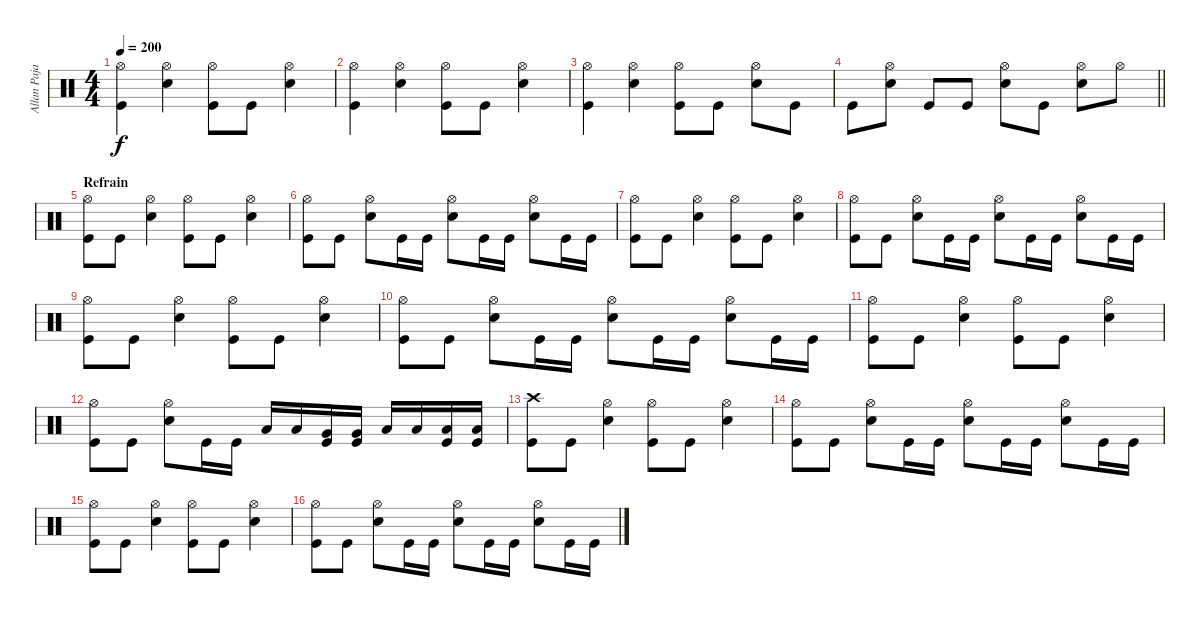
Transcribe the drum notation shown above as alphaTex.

\track ("Allan Pajarin (Drums)" "Allan Paja") {instrument percussion}
\staff {score}
\articulation defaults
\ts (4 4)
\tempo 200
\clef neutral
\ks c
("Hi-Hat (open)" "Kick (hit)").4{dy f} ("Hi-Hat (open)" "Electric Snare (hit)").4 ("Hi-Hat (open)" "Kick (hit)").8 "Kick (hit)".8 ("Hi-Hat (open)" "Electric Snare (hit)").4 |
("Hi-Hat (open)" "Kick (hit)").4 ("Hi-Hat (open)" "Electric Snare (hit)").4 ("Hi-Hat (open)" "Kick (hit)").8 "Kick (hit)".8 ("Hi-Hat (open)" "Electric Snare (hit)").4 |
("Hi-Hat (open)" "Kick (hit)").4 ("Hi-Hat (open)" "Electric Snare (hit)").4 ("Hi-Hat (open)" "Kick (hit)").8 "Kick (hit)".8 ("Hi-Hat (open)" "Electric Snare (hit)").8 "Kick (hit)".8 |
\barLineRight lightlight "Kick (hit)".8
("Hi-Hat (open)" "Electric Snare (hit)").8 "Kick (hit)".8 "Kick (hit)".8 ("Hi-Hat (open)" "Electric Snare (hit)").8 "Kick (hit)".8 ("Hi-Hat (open)" "Electric Snare (hit)").8 "Hi-Hat (open)".8 |
\section ("" "Refrain")
("Kick (hit)" "Hi-Hat (open)").8 "Kick (hit)".8 ("Hi-Hat (open)" "Electric Snare (hit)").4 ("Hi-Hat (open)" "Kick (hit)").8 "Kick (hit)".8 ("Hi-Hat (open)" "Electric Snare (hit)").4 |
("Kick (hit)" "Hi-Hat (open)").8 "Kick (hit)".8 ("Hi-Hat (open)" "Electric Snare (hit)").8 "Kick (hit)".16 "Kick (hit)".16 ("Hi-Hat (open)" "Electric Snare (hit)").8 "Kick (hit)".16 "Kick (hit)".16 ("Hi-Hat (open)" "Electric Snare (hit)").8 "Kick (hit)".16 "Kick (hit)".16 |
("Kick (hit)" "Hi-Hat (open)").8 "Kick (hit)".8 ("Hi-Hat (open)" "Electric Snare (hit)").4 ("Hi-Hat (open)" "Kick (hit)").8 "Kick (hit)".8 ("Hi-Hat (open)" "Electric Snare (hit)").4 |
("Kick (hit)" "Hi-Hat (open)").8 "Kick (hit)".8 ("Hi-Hat (open)" "Electric Snare (hit)").8 "Kick (hit)".16 "Kick (hit)".16 ("Hi-Hat (open)" "Electric Snare (hit)").8 "Kick (hit)".16 "Kick (hit)".16 ("Hi-Hat (open)" "Electric Snare (hit)").8 "Kick (hit)".16 "Kick (hit)".16 |
("Kick (hit)" "Hi-Hat (open)").8 "Kick (hit)".8 ("Hi-Hat (open)" "Electric Snare (hit)").4 ("Hi-Hat (open)" "Kick (hit)").8 "Kick (hit)".8 ("Hi-Hat (open)" "Electric Snare (hit)").4 |
("Kick (hit)" "Hi-Hat (open)").8 "Kick (hit)".8 ("Hi-Hat (open)" "Electric Snare (hit)").8 "Kick (hit)".16 "Kick (hit)".16 ("Hi-Hat (open)" "Electric Snare (hit)").8 "Kick (hit)".16 "Kick (hit)".16 ("Hi-Hat (open)" "Electric Snare (hit)").8 "Kick (hit)".16 "Kick (hit)".16 |
("Kick (hit)" "Hi-Hat (open)").8 "Kick (hit)".8 ("Hi-Hat (open)" "Electric Snare (hit)").4 ("Hi-Hat (open)" "Kick (hit)").8 "Kick (hit)".8 ("Hi-Hat (open)" "Electric Snare (hit)").4 |
("Kick (hit)" "Hi-Hat (open)").8 "Kick (hit)".8 ("Hi-Hat (open)" "Electric Snare (hit)").8 "Kick (hit)".16 "Kick (hit)".16 "Low Tom (hit)".16 "Low Tom (hit)".16 ("Very Low Tom (hit)" "Kick (hit)").16 ("Very Low Tom (hit)" "Kick (hit)").16 "Low Floor Tom (hit)".16 "Low Floor Tom (hit)".16 ("Low Floor Tom (hit)" "Kick (hit)").16 ("Low Floor Tom (hit)" "Kick (hit)").16 |
("Crash high (hit)" "Kick (hit)").8 "Kick (hit)".8 ("Hi-Hat (open)" "Electric Snare (hit)").4 ("Hi-Hat (open)" "Kick (hit)").8 "Kick (hit)".8 ("Hi-Hat (open)" "Electric Snare (hit)").4 |
("Hi-Hat (open)" "Kick (hit)").8 "Kick (hit)".8 ("Hi-Hat (open)" "Electric Snare (hit)").8 "Kick (hit)".16 "Kick (hit)".16 ("Hi-Hat (open)" "Electric Snare (hit)").8 "Kick (hit)".16 "Kick (hit)".16 ("Hi-Hat (open)" "Electric Snare (hit)").8 "Kick (hit)".16 "Kick (hit)".16 |
("Hi-Hat (open)" "Kick (hit)").8 "Kick (hit)".8 ("Hi-Hat (open)" "Electric Snare (hit)").4 ("Hi-Hat (open)" "Kick (hit)").8 "Kick (hit)".8 ("Hi-Hat (open)" "Electric Snare (hit)").4 |
("Hi-Hat (open)" "Kick (hit)").8 "Kick (hit)".8 ("Hi-Hat (open)" "Electric Snare (hit)").8 "Kick (hit)".16 "Kick (hit)".16 ("Hi-Hat (open)" "Electric Snare (hit)").8 "Kick (hit)".16 "Kick (hit)".16 ("Hi-Hat (open)" "Electric Snare (hit)").8 "Kick (hit)".16 "Kick (hit)".16
